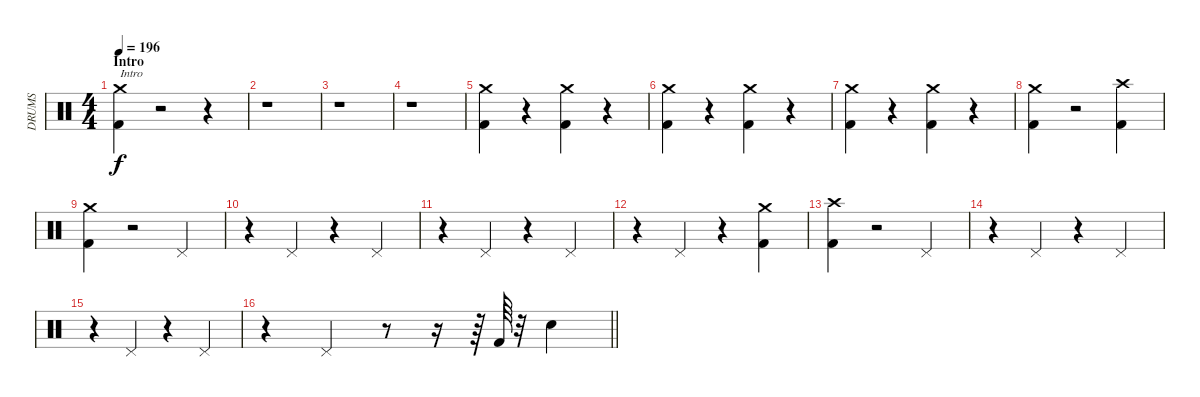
\track ("DRUMS" "DRUMS") {instrument percussion}
\staff {score}
\articulation defaults
\ts (4 4)
\section ("" "Intro")
\tempo 196
\clef neutral
\ks c
("Crash medium (hit)" "Kick (hit) 2").4{txt "Intro" dy f} r.2 r.4 |
r.1 |
r.1 |
r.1 |
("Crash medium (hit)" "Kick (hit) 2").4 r.4 ("Crash medium (hit)" "Kick (hit) 2").4 r.4 |
("Crash medium (hit)" "Kick (hit) 2").4 r.4 ("Crash medium (hit)" "Kick (hit) 2").4 r.4 |
("Crash medium (hit)" "Kick (hit) 2").4 r.4 ("Crash medium (hit)" "Kick (hit) 2").4 r.4 |
("Crash medium (hit)" "Kick (hit) 2").4 r.2 ("Crash high (hit)" "Kick (hit) 2").4 |
("Crash medium (hit)" "Kick (hit) 2").4 r.2 "Pedal Hi-Hat (hit)".4 |
r.4 "Pedal Hi-Hat (hit)".4 r.4 "Pedal Hi-Hat (hit)".4 |
r.4 "Pedal Hi-Hat (hit)".4 r.4 "Pedal Hi-Hat (hit)".4 |
r.4 "Pedal Hi-Hat (hit)".4 r.4 ("Crash medium (hit)" "Kick (hit) 2").4 |
("Crash high (hit)" "Kick (hit) 2").4 r.2 "Pedal Hi-Hat (hit)".4 |
r.4 "Pedal Hi-Hat (hit)".4 r.4 "Pedal Hi-Hat (hit)".4 |
r.4 "Pedal Hi-Hat (hit)".4 r.4 "Pedal Hi-Hat (hit)".4 |
\barLineRight lightlight
r.4 "Pedal Hi-Hat (hit)".4 r.8 r.16 r.64 "Kick (hit) 2".64 r.32 "Snare (hit) 2".4
